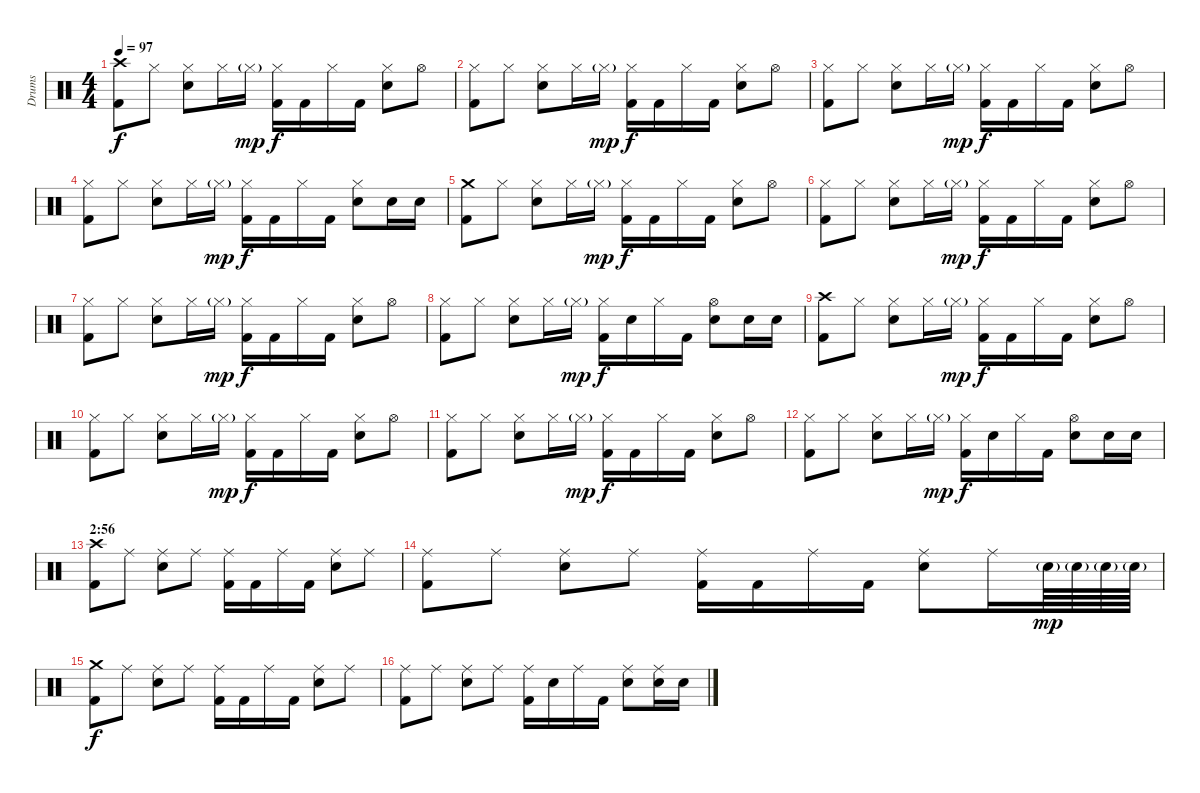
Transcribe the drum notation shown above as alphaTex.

\track ("Drums" "Drums") {instrument percussion}
\staff {score}
\articulation defaults
\ts (4 4)
\tempo 97
\clef neutral
\ks c
("Crash high (hit)" "Kick (hit) 2").8{dy f} "Hi-Hat (closed)".8 ("Hi-Hat (closed)" "Snare (hit) 2").8 "Hi-Hat (closed)".16 "Hi-Hat (closed)"{g}.16{dy mp} ("Hi-Hat (closed)" "Kick (hit) 2").16{dy f} "Kick (hit) 2".16 "Hi-Hat (closed)".16 "Kick (hit) 2".16 ("Hi-Hat (closed)" "Snare (hit) 2").8 "Hi-Hat (open)".8 |
("Hi-Hat (closed)" "Kick (hit) 2").8 "Hi-Hat (closed)".8 ("Hi-Hat (closed)" "Snare (hit) 2").8 "Hi-Hat (closed)".16 "Hi-Hat (closed)"{g}.16{dy mp} ("Hi-Hat (closed)" "Kick (hit) 2").16{dy f} "Kick (hit) 2".16 "Hi-Hat (closed)".16 "Kick (hit) 2".16 ("Hi-Hat (closed)" "Snare (hit) 2").8 "Hi-Hat (open)".8 |
("Hi-Hat (closed)" "Kick (hit) 2").8 "Hi-Hat (closed)".8 ("Hi-Hat (closed)" "Snare (hit) 2").8 "Hi-Hat (closed)".16 "Hi-Hat (closed)"{g}.16{dy mp} ("Hi-Hat (closed)" "Kick (hit) 2").16{dy f} "Kick (hit) 2".16 "Hi-Hat (closed)".16 "Kick (hit) 2".16 ("Hi-Hat (closed)" "Snare (hit) 2").8 "Hi-Hat (open)".8 |
("Hi-Hat (closed)" "Kick (hit) 2").8 "Hi-Hat (closed)".8 ("Hi-Hat (closed)" "Snare (hit) 2").8 "Hi-Hat (closed)".16 "Hi-Hat (closed)"{g}.16{dy mp} ("Hi-Hat (closed)" "Kick (hit) 2").16{dy f} "Kick (hit) 2".16 "Hi-Hat (closed)".16 "Kick (hit) 2".16 ("Hi-Hat (closed)" "Snare (hit) 2").8 "Snare (hit) 2".16 "Snare (hit) 2".16 |
("Crash medium (hit)" "Kick (hit) 2").8 "Hi-Hat (closed)".8 ("Hi-Hat (closed)" "Snare (hit) 2").8 "Hi-Hat (closed)".16 "Hi-Hat (closed)"{g}.16{dy mp} ("Hi-Hat (closed)" "Kick (hit) 2").16{dy f} "Kick (hit) 2".16 "Hi-Hat (closed)".16 "Kick (hit) 2".16 ("Hi-Hat (closed)" "Snare (hit) 2").8 "Hi-Hat (open)".8 |
("Hi-Hat (closed)" "Kick (hit) 2").8 "Hi-Hat (closed)".8 ("Hi-Hat (closed)" "Snare (hit) 2").8 "Hi-Hat (closed)".16 "Hi-Hat (closed)"{g}.16{dy mp} ("Hi-Hat (closed)" "Kick (hit) 2").16{dy f} "Kick (hit) 2".16 "Hi-Hat (closed)".16 "Kick (hit) 2".16 ("Hi-Hat (closed)" "Snare (hit) 2").8 "Hi-Hat (open)".8 |
("Hi-Hat (closed)" "Kick (hit) 2").8 "Hi-Hat (closed)".8 ("Hi-Hat (closed)" "Snare (hit) 2").8 "Hi-Hat (closed)".16 "Hi-Hat (closed)"{g}.16{dy mp} ("Hi-Hat (closed)" "Kick (hit) 2").16{dy f} "Kick (hit) 2".16 "Hi-Hat (closed)".16 "Kick (hit) 2".16 ("Hi-Hat (closed)" "Snare (hit) 2").8 "Hi-Hat (open)".8 |
("Hi-Hat (closed)" "Kick (hit) 2").8 "Hi-Hat (closed)".8 ("Hi-Hat (closed)" "Snare (hit) 2").8 "Hi-Hat (closed)".16 "Hi-Hat (closed)"{g}.16{dy mp} ("Hi-Hat (closed)" "Kick (hit) 2").16{dy f} "Snare (hit) 2".16 "Hi-Hat (closed)".16 "Kick (hit) 2".16 ("Hi-Hat (open)" "Snare (hit) 2").8 "Snare (hit) 2".16 "Snare (hit) 2".16 |
("Crash high (hit)" "Kick (hit) 2").8 "Hi-Hat (closed)".8 ("Hi-Hat (closed)" "Snare (hit) 2").8 "Hi-Hat (closed)".16 "Hi-Hat (closed)"{g}.16{dy mp} ("Hi-Hat (closed)" "Kick (hit) 2").16{dy f} "Kick (hit) 2".16 "Hi-Hat (closed)".16 "Kick (hit) 2".16 ("Hi-Hat (closed)" "Snare (hit) 2").8 "Hi-Hat (open)".8 |
("Hi-Hat (closed)" "Kick (hit) 2").8 "Hi-Hat (closed)".8 ("Hi-Hat (closed)" "Snare (hit) 2").8 "Hi-Hat (closed)".16 "Hi-Hat (closed)"{g}.16{dy mp} ("Hi-Hat (closed)" "Kick (hit) 2").16{dy f} "Kick (hit) 2".16 "Hi-Hat (closed)".16 "Kick (hit) 2".16 ("Hi-Hat (closed)" "Snare (hit) 2").8 "Hi-Hat (open)".8 |
("Hi-Hat (closed)" "Kick (hit) 2").8 "Hi-Hat (closed)".8 ("Hi-Hat (closed)" "Snare (hit) 2").8 "Hi-Hat (closed)".16 "Hi-Hat (closed)"{g}.16{dy mp} ("Hi-Hat (closed)" "Kick (hit) 2").16{dy f} "Kick (hit) 2".16 "Hi-Hat (closed)".16 "Kick (hit) 2".16 ("Hi-Hat (closed)" "Snare (hit) 2").8 "Hi-Hat (open)".8 |
("Hi-Hat (closed)" "Kick (hit) 2").8 "Hi-Hat (closed)".8 ("Hi-Hat (closed)" "Snare (hit) 2").8 "Hi-Hat (closed)".16 "Hi-Hat (closed)"{g}.16{dy mp} ("Hi-Hat (closed)" "Kick (hit) 2").16{dy f} "Snare (hit) 2".16 "Hi-Hat (closed)".16 "Kick (hit) 2".16 ("Hi-Hat (open)" "Snare (hit) 2").8 "Snare (hit) 2".16 "Snare (hit) 2".16 |
\section ("" "2:56")
("Crash high (hit)" "Kick (hit) 2").8 "Ride (middle)".8 ("Ride (middle)" "Snare (hit) 2").8 "Ride (middle)".8 ("Ride (middle)" "Kick (hit) 2").16 "Kick (hit) 2".16 "Ride (middle)".16 "Kick (hit) 2".16 ("Ride (middle)" "Snare (hit) 2").8 "Ride (middle)".8 |
("Ride (middle)" "Kick (hit) 2").8 "Ride (middle)".8 ("Ride (middle)" "Snare (hit) 2").8 "Ride (middle)".8 ("Ride (middle)" "Kick (hit) 2").16 "Kick (hit) 2".16 "Ride (middle)".16 "Kick (hit) 2".16 ("Ride (middle)" "Snare (hit) 2").8 "Ride (middle)".16 "Snare (hit) 2"{g}.64{dy mp} "Snare (hit) 2"{g}.64 "Snare (hit) 2"{g}.64 "Snare (hit) 2"{g}.64 |
("Crash medium (hit)" "Kick (hit) 2").8{dy f} "Ride (middle)".8 ("Ride (middle)" "Snare (hit) 2").8 "Ride (middle)".8 ("Ride (middle)" "Kick (hit) 2").16 "Kick (hit) 2".16 "Ride (middle)".16 "Kick (hit) 2".16 ("Ride (middle)" "Snare (hit) 2").8 "Ride (middle)".8 |
("Ride (middle)" "Kick (hit) 2").8 "Ride (middle)".8 ("Ride (middle)" "Snare (hit) 2").8 "Ride (middle)".8 ("Ride (middle)" "Kick (hit) 2").16 "Snare (hit) 2".16 "Ride (middle)".16 "Kick (hit) 2".16 ("Ride (middle)" "Snare (hit) 2").8 ("Ride (middle)" "Snare (hit) 2").16 "Snare (hit) 2".16
